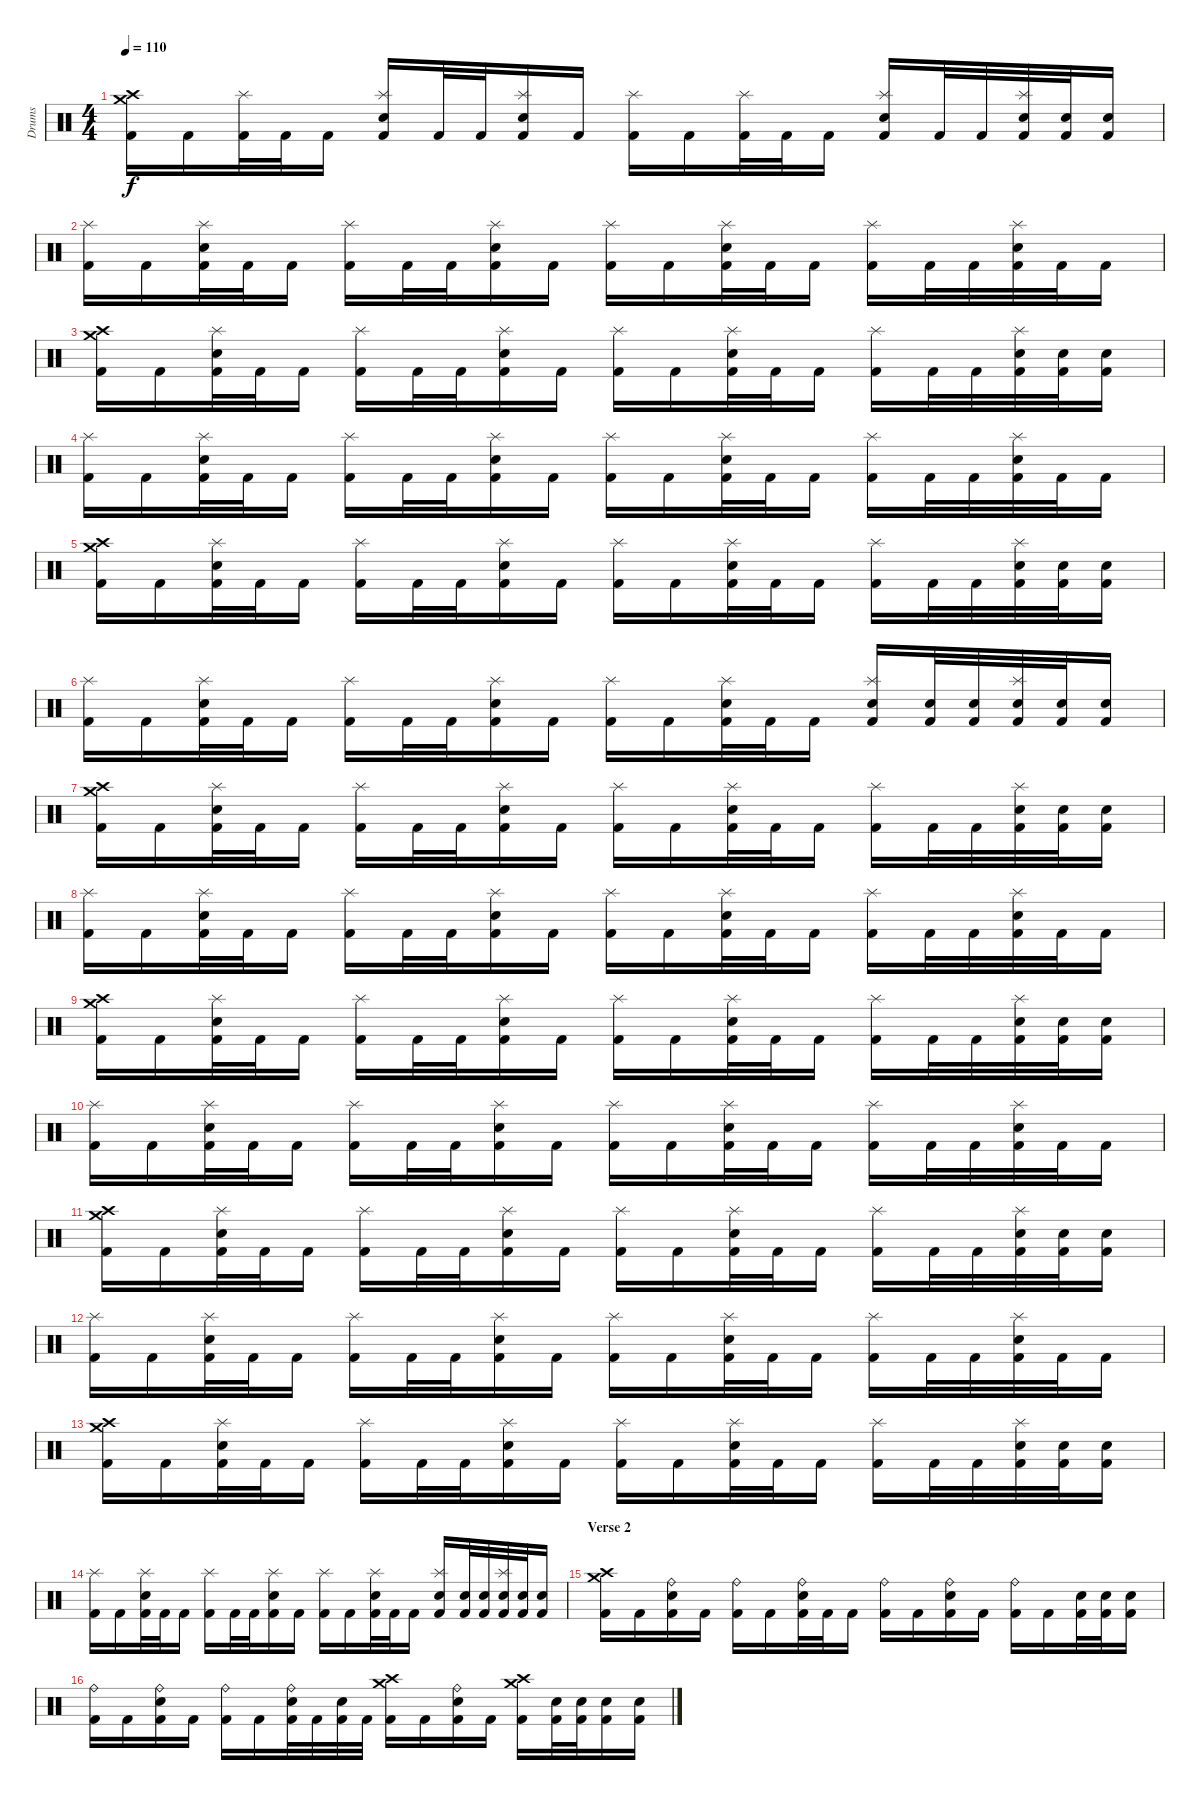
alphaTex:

\track ("Drums" "Drums") {instrument percussion}
\staff {score}
\articulation defaults
\ts (4 4)
\tempo 110
\clef neutral
\ks c
("Crash medium (hit)" "Crash high (hit)" "Kick (hit) 2").16{dy f} "Kick (hit) 2".16 ("Splash (hit)" "Kick (hit) 2").32 "Kick (hit) 2".32 "Kick (hit) 2".16 ("Splash (hit)" "Electric Snare (hit)" "Kick (hit) 2").16 "Kick (hit) 2".32 "Kick (hit) 2".32 ("Splash (hit)" "Electric Snare (hit)" "Kick (hit) 2").16 "Kick (hit) 2".16 ("Splash (hit)" "Kick (hit) 2").16 "Kick (hit) 2".16 ("Splash (hit)" "Kick (hit) 2").32 "Kick (hit) 2".32 "Kick (hit) 2".16 ("Splash (hit)" "Electric Snare (hit)" "Kick (hit) 2").16 "Kick (hit) 2".32 "Kick (hit) 2".32 ("Splash (hit)" "Electric Snare (hit)" "Kick (hit) 2").32 ("Electric Snare (hit)" "Kick (hit) 2").32 ("Electric Snare (hit)" "Kick (hit) 2").16 |
("Splash (hit)" "Kick (hit) 2").16 "Kick (hit) 2".16 ("Splash (hit)" "Electric Snare (hit)" "Kick (hit) 2").32 "Kick (hit) 2".32 "Kick (hit) 2".16 ("Splash (hit)" "Kick (hit) 2").16 "Kick (hit) 2".32 "Kick (hit) 2".32 ("Splash (hit)" "Electric Snare (hit)" "Kick (hit) 2").16 "Kick (hit) 2".16 ("Splash (hit)" "Kick (hit) 2").16 "Kick (hit) 2".16 ("Splash (hit)" "Electric Snare (hit)" "Kick (hit) 2").32 "Kick (hit) 2".32 "Kick (hit) 2".16 ("Splash (hit)" "Kick (hit) 2").16 "Kick (hit) 2".32 "Kick (hit) 2".32 ("Splash (hit)" "Electric Snare (hit)" "Kick (hit) 2").32 "Kick (hit) 2".32 "Kick (hit) 2".16 |
("Crash medium (hit)" "Crash high (hit)" "Kick (hit) 2").16 "Kick (hit) 2".16 ("Splash (hit)" "Electric Snare (hit)" "Kick (hit) 2").32 "Kick (hit) 2".32 "Kick (hit) 2".16 ("Splash (hit)" "Kick (hit) 2").16 "Kick (hit) 2".32 "Kick (hit) 2".32 ("Splash (hit)" "Electric Snare (hit)" "Kick (hit) 2").16 "Kick (hit) 2".16 ("Splash (hit)" "Kick (hit) 2").16 "Kick (hit) 2".16 ("Splash (hit)" "Electric Snare (hit)" "Kick (hit) 2").32 "Kick (hit) 2".32 "Kick (hit) 2".16 ("Splash (hit)" "Kick (hit) 2").16 "Kick (hit) 2".32 "Kick (hit) 2".32 ("Splash (hit)" "Electric Snare (hit)" "Kick (hit) 2").32 ("Electric Snare (hit)" "Kick (hit) 2").32 ("Electric Snare (hit)" "Kick (hit) 2").16 |
("Splash (hit)" "Kick (hit) 2").16 "Kick (hit) 2".16 ("Splash (hit)" "Electric Snare (hit)" "Kick (hit) 2").32 "Kick (hit) 2".32 "Kick (hit) 2".16 ("Splash (hit)" "Kick (hit) 2").16 "Kick (hit) 2".32 "Kick (hit) 2".32 ("Splash (hit)" "Electric Snare (hit)" "Kick (hit) 2").16 "Kick (hit) 2".16 ("Splash (hit)" "Kick (hit) 2").16 "Kick (hit) 2".16 ("Splash (hit)" "Electric Snare (hit)" "Kick (hit) 2").32 "Kick (hit) 2".32 "Kick (hit) 2".16 ("Splash (hit)" "Kick (hit) 2").16 "Kick (hit) 2".32 "Kick (hit) 2".32 ("Splash (hit)" "Electric Snare (hit)" "Kick (hit) 2").32 "Kick (hit) 2".32 "Kick (hit) 2".16 |
("Crash medium (hit)" "Crash high (hit)" "Kick (hit) 2").16 "Kick (hit) 2".16 ("Splash (hit)" "Electric Snare (hit)" "Kick (hit) 2").32 "Kick (hit) 2".32 "Kick (hit) 2".16 ("Splash (hit)" "Kick (hit) 2").16 "Kick (hit) 2".32 "Kick (hit) 2".32 ("Splash (hit)" "Electric Snare (hit)" "Kick (hit) 2").16 "Kick (hit) 2".16 ("Splash (hit)" "Kick (hit) 2").16 "Kick (hit) 2".16 ("Splash (hit)" "Electric Snare (hit)" "Kick (hit) 2").32 "Kick (hit) 2".32 "Kick (hit) 2".16 ("Splash (hit)" "Kick (hit) 2").16 "Kick (hit) 2".32 "Kick (hit) 2".32 ("Splash (hit)" "Electric Snare (hit)" "Kick (hit) 2").32 ("Electric Snare (hit)" "Kick (hit) 2").32 ("Electric Snare (hit)" "Kick (hit) 2").16 |
("Splash (hit)" "Kick (hit) 2").16 "Kick (hit) 2".16 ("Splash (hit)" "Electric Snare (hit)" "Kick (hit) 2").32 "Kick (hit) 2".32 "Kick (hit) 2".16 ("Splash (hit)" "Kick (hit) 2").16 "Kick (hit) 2".32 "Kick (hit) 2".32 ("Splash (hit)" "Electric Snare (hit)" "Kick (hit) 2").16 "Kick (hit) 2".16 ("Splash (hit)" "Kick (hit) 2").16 "Kick (hit) 2".16 ("Splash (hit)" "Electric Snare (hit)" "Kick (hit) 2").32 "Kick (hit) 2".32 "Kick (hit) 2".16 ("Splash (hit)" "Electric Snare (hit)" "Kick (hit) 2").16 ("Electric Snare (hit)" "Kick (hit) 2").32 ("Electric Snare (hit)" "Kick (hit) 2").32 ("Splash (hit)" "Electric Snare (hit)" "Kick (hit) 2").32 ("Electric Snare (hit)" "Kick (hit) 2").32 ("Electric Snare (hit)" "Kick (hit) 2").16 |
("Crash medium (hit)" "Crash high (hit)" "Kick (hit) 2").16 "Kick (hit) 2".16 ("Splash (hit)" "Electric Snare (hit)" "Kick (hit) 2").32 "Kick (hit) 2".32 "Kick (hit) 2".16 ("Splash (hit)" "Kick (hit) 2").16 "Kick (hit) 2".32 "Kick (hit) 2".32 ("Splash (hit)" "Electric Snare (hit)" "Kick (hit) 2").16 "Kick (hit) 2".16 ("Splash (hit)" "Kick (hit) 2").16 "Kick (hit) 2".16 ("Splash (hit)" "Electric Snare (hit)" "Kick (hit) 2").32 "Kick (hit) 2".32 "Kick (hit) 2".16 ("Splash (hit)" "Kick (hit) 2").16 "Kick (hit) 2".32 "Kick (hit) 2".32 ("Splash (hit)" "Electric Snare (hit)" "Kick (hit) 2").32 ("Electric Snare (hit)" "Kick (hit) 2").32 ("Electric Snare (hit)" "Kick (hit) 2").16 |
("Splash (hit)" "Kick (hit) 2").16 "Kick (hit) 2".16 ("Splash (hit)" "Electric Snare (hit)" "Kick (hit) 2").32 "Kick (hit) 2".32 "Kick (hit) 2".16 ("Splash (hit)" "Kick (hit) 2").16 "Kick (hit) 2".32 "Kick (hit) 2".32 ("Splash (hit)" "Electric Snare (hit)" "Kick (hit) 2").16 "Kick (hit) 2".16 ("Splash (hit)" "Kick (hit) 2").16 "Kick (hit) 2".16 ("Splash (hit)" "Electric Snare (hit)" "Kick (hit) 2").32 "Kick (hit) 2".32 "Kick (hit) 2".16 ("Splash (hit)" "Kick (hit) 2").16 "Kick (hit) 2".32 "Kick (hit) 2".32 ("Splash (hit)" "Electric Snare (hit)" "Kick (hit) 2").32 "Kick (hit) 2".32 "Kick (hit) 2".16 |
("Crash medium (hit)" "Crash high (hit)" "Kick (hit) 2").16 "Kick (hit) 2".16 ("Splash (hit)" "Electric Snare (hit)" "Kick (hit) 2").32 "Kick (hit) 2".32 "Kick (hit) 2".16 ("Splash (hit)" "Kick (hit) 2").16 "Kick (hit) 2".32 "Kick (hit) 2".32 ("Splash (hit)" "Electric Snare (hit)" "Kick (hit) 2").16 "Kick (hit) 2".16 ("Splash (hit)" "Kick (hit) 2").16 "Kick (hit) 2".16 ("Splash (hit)" "Electric Snare (hit)" "Kick (hit) 2").32 "Kick (hit) 2".32 "Kick (hit) 2".16 ("Splash (hit)" "Kick (hit) 2").16 "Kick (hit) 2".32 "Kick (hit) 2".32 ("Splash (hit)" "Electric Snare (hit)" "Kick (hit) 2").32 ("Electric Snare (hit)" "Kick (hit) 2").32 ("Electric Snare (hit)" "Kick (hit) 2").16 |
("Splash (hit)" "Kick (hit) 2").16 "Kick (hit) 2".16 ("Splash (hit)" "Electric Snare (hit)" "Kick (hit) 2").32 "Kick (hit) 2".32 "Kick (hit) 2".16 ("Splash (hit)" "Kick (hit) 2").16 "Kick (hit) 2".32 "Kick (hit) 2".32 ("Splash (hit)" "Electric Snare (hit)" "Kick (hit) 2").16 "Kick (hit) 2".16 ("Splash (hit)" "Kick (hit) 2").16 "Kick (hit) 2".16 ("Splash (hit)" "Electric Snare (hit)" "Kick (hit) 2").32 "Kick (hit) 2".32 "Kick (hit) 2".16 ("Splash (hit)" "Kick (hit) 2").16 "Kick (hit) 2".32 "Kick (hit) 2".32 ("Splash (hit)" "Electric Snare (hit)" "Kick (hit) 2").32 "Kick (hit) 2".32 "Kick (hit) 2".16 |
("Crash medium (hit)" "Crash high (hit)" "Kick (hit) 2").16 "Kick (hit) 2".16 ("Splash (hit)" "Electric Snare (hit)" "Kick (hit) 2").32 "Kick (hit) 2".32 "Kick (hit) 2".16 ("Splash (hit)" "Kick (hit) 2").16 "Kick (hit) 2".32 "Kick (hit) 2".32 ("Splash (hit)" "Electric Snare (hit)" "Kick (hit) 2").16 "Kick (hit) 2".16 ("Splash (hit)" "Kick (hit) 2").16 "Kick (hit) 2".16 ("Splash (hit)" "Electric Snare (hit)" "Kick (hit) 2").32 "Kick (hit) 2".32 "Kick (hit) 2".16 ("Splash (hit)" "Kick (hit) 2").16 "Kick (hit) 2".32 "Kick (hit) 2".32 ("Splash (hit)" "Electric Snare (hit)" "Kick (hit) 2").32 ("Electric Snare (hit)" "Kick (hit) 2").32 ("Electric Snare (hit)" "Kick (hit) 2").16 |
("Splash (hit)" "Kick (hit) 2").16 "Kick (hit) 2".16 ("Splash (hit)" "Electric Snare (hit)" "Kick (hit) 2").32 "Kick (hit) 2".32 "Kick (hit) 2".16 ("Splash (hit)" "Kick (hit) 2").16 "Kick (hit) 2".32 "Kick (hit) 2".32 ("Splash (hit)" "Electric Snare (hit)" "Kick (hit) 2").16 "Kick (hit) 2".16 ("Splash (hit)" "Kick (hit) 2").16 "Kick (hit) 2".16 ("Splash (hit)" "Electric Snare (hit)" "Kick (hit) 2").32 "Kick (hit) 2".32 "Kick (hit) 2".16 ("Splash (hit)" "Kick (hit) 2").16 "Kick (hit) 2".32 "Kick (hit) 2".32 ("Splash (hit)" "Electric Snare (hit)" "Kick (hit) 2").32 "Kick (hit) 2".32 "Kick (hit) 2".16 |
("Crash medium (hit)" "Crash high (hit)" "Kick (hit) 2").16 "Kick (hit) 2".16 ("Splash (hit)" "Electric Snare (hit)" "Kick (hit) 2").32 "Kick (hit) 2".32 "Kick (hit) 2".16 ("Splash (hit)" "Kick (hit) 2").16 "Kick (hit) 2".32 "Kick (hit) 2".32 ("Splash (hit)" "Electric Snare (hit)" "Kick (hit) 2").16 "Kick (hit) 2".16 ("Splash (hit)" "Kick (hit) 2").16 "Kick (hit) 2".16 ("Splash (hit)" "Electric Snare (hit)" "Kick (hit) 2").32 "Kick (hit) 2".32 "Kick (hit) 2".16 ("Splash (hit)" "Kick (hit) 2").16 "Kick (hit) 2".32 "Kick (hit) 2".32 ("Splash (hit)" "Electric Snare (hit)" "Kick (hit) 2").32 ("Electric Snare (hit)" "Kick (hit) 2").32 ("Electric Snare (hit)" "Kick (hit) 2").16 |
("Splash (hit)" "Kick (hit) 2").16 "Kick (hit) 2".16 ("Splash (hit)" "Electric Snare (hit)" "Kick (hit) 2").32 "Kick (hit) 2".32 "Kick (hit) 2".16 ("Splash (hit)" "Kick (hit) 2").16 "Kick (hit) 2".32 "Kick (hit) 2".32 ("Splash (hit)" "Electric Snare (hit)" "Kick (hit) 2").16 "Kick (hit) 2".16 ("Splash (hit)" "Kick (hit) 2").16 "Kick (hit) 2".16 ("Splash (hit)" "Electric Snare (hit)" "Kick (hit) 2").32 "Kick (hit) 2".32 "Kick (hit) 2".16 ("Splash (hit)" "Electric Snare (hit)" "Kick (hit) 2").16 ("Electric Snare (hit)" "Kick (hit) 2").32 ("Electric Snare (hit)" "Kick (hit) 2").32 ("Splash (hit)" "Electric Snare (hit)" "Kick (hit) 2").32 ("Electric Snare (hit)" "Kick (hit) 2").32 ("Electric Snare (hit)" "Kick (hit) 2").16 |
\section ("" "Verse 2")
("Crash medium (hit)" "Crash high (hit)" "Kick (hit) 2").16 "Kick (hit) 2".16 ("Ride (bell)" "Electric Snare (hit)" "Kick (hit) 2").16 "Kick (hit) 2".16 ("Ride (bell)" "Kick (hit) 2").16 "Kick (hit) 2".16 ("Ride (bell)" "Electric Snare (hit)" "Kick (hit) 2").32 "Kick (hit) 2".32 "Kick (hit) 2".16 ("Ride (bell)" "Kick (hit) 2").16 "Kick (hit) 2".16 ("Ride (bell)" "Electric Snare (hit)" "Kick (hit) 2").16 "Kick (hit) 2".16 ("Ride (bell)" "Kick (hit) 2").16 "Kick (hit) 2".16 ("Electric Snare (hit)" "Kick (hit) 2").32 ("Electric Snare (hit)" "Kick (hit) 2").32 ("Electric Snare (hit)" "Kick (hit) 2").16 |
("Ride (bell)" "Kick (hit) 2").16 "Kick (hit) 2".16 ("Ride (bell)" "Electric Snare (hit)" "Kick (hit) 2").16 "Kick (hit) 2".16 ("Ride (bell)" "Kick (hit) 2").16 "Kick (hit) 2".16 ("Ride (bell)" "Electric Snare (hit)" "Kick (hit) 2").32 "Kick (hit) 2".32 ("Electric Snare (hit)" "Kick (hit) 2").32 "Kick (hit) 2".32 ("Crash medium (hit)" "Crash high (hit)" "Kick (hit) 2").16 "Kick (hit) 2".16 ("Ride (bell)" "Electric Snare (hit)" "Kick (hit) 2").16 "Kick (hit) 2".16 ("Crash medium (hit)" "Crash high (hit)" "Kick (hit) 2").16 ("Electric Snare (hit)" "Kick (hit) 2").32 ("Electric Snare (hit)" "Kick (hit) 2").32 ("Electric Snare (hit)" "Kick (hit) 2").16 ("Electric Snare (hit)" "Kick (hit) 2").16
